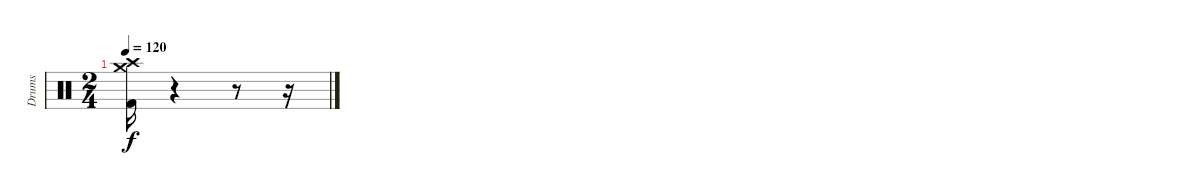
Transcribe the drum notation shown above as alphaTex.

\track ("Drums" "Drums") {instrument percussion}
\staff {score}
\articulation defaults
\ts (2 4)
\tempo 120
\clef neutral
\ks c
("Crash medium (hit)" "Crash high (hit)" "Kick (hit) 2").16{dy f} r.4 r.8 r.16
